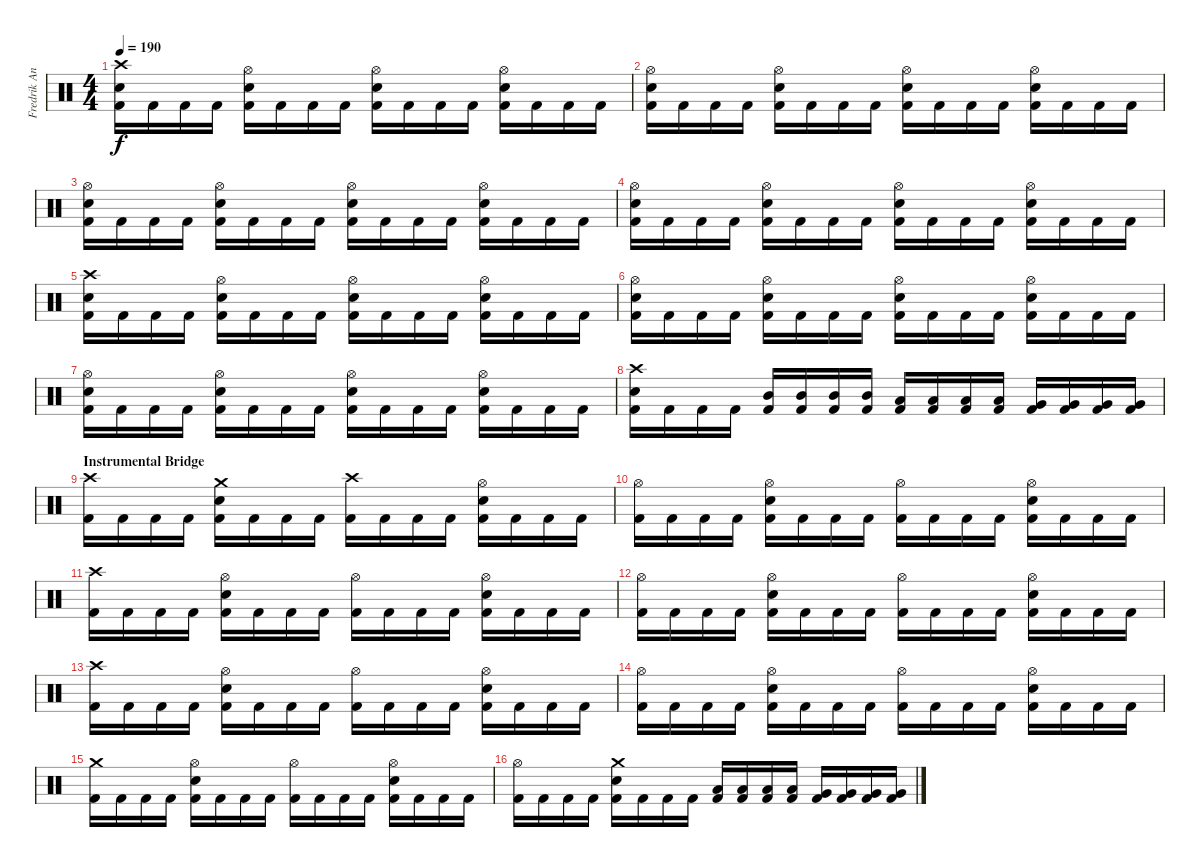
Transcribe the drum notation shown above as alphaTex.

\track ("Fredrik Andersson" "Fredrik An") {instrument percussion}
\staff {score}
\articulation defaults
\ts (4 4)
\section ("" "")
\tempo 190
\clef neutral
\ks c
("Crash high (hit)" "Electric Snare (hit)" "Kick (hit) 2").16{dy f} "Kick (hit) 2".16 "Kick (hit) 2".16 "Kick (hit) 2".16 ("Hi-Hat (open)" "Electric Snare (hit)" "Kick (hit) 2").16 "Kick (hit) 2".16 "Kick (hit) 2".16 "Kick (hit) 2".16 ("Hi-Hat (open)" "Electric Snare (hit)" "Kick (hit) 2").16 "Kick (hit) 2".16 "Kick (hit) 2".16 "Kick (hit) 2".16 ("Hi-Hat (open)" "Electric Snare (hit)" "Kick (hit) 2").16 "Kick (hit) 2".16 "Kick (hit) 2".16 "Kick (hit) 2".16 |
("Hi-Hat (open)" "Electric Snare (hit)" "Kick (hit) 2").16 "Kick (hit) 2".16 "Kick (hit) 2".16 "Kick (hit) 2".16 ("Hi-Hat (open)" "Electric Snare (hit)" "Kick (hit) 2").16 "Kick (hit) 2".16 "Kick (hit) 2".16 "Kick (hit) 2".16 ("Hi-Hat (open)" "Electric Snare (hit)" "Kick (hit) 2").16 "Kick (hit) 2".16 "Kick (hit) 2".16 "Kick (hit) 2".16 ("Hi-Hat (open)" "Electric Snare (hit)" "Kick (hit) 2").16 "Kick (hit) 2".16 "Kick (hit) 2".16 "Kick (hit) 2".16 |
("Hi-Hat (open)" "Electric Snare (hit)" "Kick (hit) 2").16 "Kick (hit) 2".16 "Kick (hit) 2".16 "Kick (hit) 2".16 ("Hi-Hat (open)" "Electric Snare (hit)" "Kick (hit) 2").16 "Kick (hit) 2".16 "Kick (hit) 2".16 "Kick (hit) 2".16 ("Hi-Hat (open)" "Electric Snare (hit)" "Kick (hit) 2").16 "Kick (hit) 2".16 "Kick (hit) 2".16 "Kick (hit) 2".16 ("Hi-Hat (open)" "Electric Snare (hit)" "Kick (hit) 2").16 "Kick (hit) 2".16 "Kick (hit) 2".16 "Kick (hit) 2".16 |
("Hi-Hat (open)" "Electric Snare (hit)" "Kick (hit) 2").16 "Kick (hit) 2".16 "Kick (hit) 2".16 "Kick (hit) 2".16 ("Hi-Hat (open)" "Electric Snare (hit)" "Kick (hit) 2").16 "Kick (hit) 2".16 "Kick (hit) 2".16 "Kick (hit) 2".16 ("Hi-Hat (open)" "Electric Snare (hit)" "Kick (hit) 2").16 "Kick (hit) 2".16 "Kick (hit) 2".16 "Kick (hit) 2".16 ("Hi-Hat (open)" "Electric Snare (hit)" "Kick (hit) 2").16 "Kick (hit) 2".16 "Kick (hit) 2".16 "Kick (hit) 2".16 |
("Crash high (hit)" "Electric Snare (hit)" "Kick (hit) 2").16 "Kick (hit) 2".16 "Kick (hit) 2".16 "Kick (hit) 2".16 ("Hi-Hat (open)" "Electric Snare (hit)" "Kick (hit) 2").16 "Kick (hit) 2".16 "Kick (hit) 2".16 "Kick (hit) 2".16 ("Hi-Hat (open)" "Electric Snare (hit)" "Kick (hit) 2").16 "Kick (hit) 2".16 "Kick (hit) 2".16 "Kick (hit) 2".16 ("Hi-Hat (open)" "Electric Snare (hit)" "Kick (hit) 2").16 "Kick (hit) 2".16 "Kick (hit) 2".16 "Kick (hit) 2".16 |
("Hi-Hat (open)" "Electric Snare (hit)" "Kick (hit) 2").16 "Kick (hit) 2".16 "Kick (hit) 2".16 "Kick (hit) 2".16 ("Hi-Hat (open)" "Electric Snare (hit)" "Kick (hit) 2").16 "Kick (hit) 2".16 "Kick (hit) 2".16 "Kick (hit) 2".16 ("Hi-Hat (open)" "Electric Snare (hit)" "Kick (hit) 2").16 "Kick (hit) 2".16 "Kick (hit) 2".16 "Kick (hit) 2".16 ("Hi-Hat (open)" "Electric Snare (hit)" "Kick (hit) 2").16 "Kick (hit) 2".16 "Kick (hit) 2".16 "Kick (hit) 2".16 |
("Hi-Hat (open)" "Electric Snare (hit)" "Kick (hit) 2").16 "Kick (hit) 2".16 "Kick (hit) 2".16 "Kick (hit) 2".16 ("Hi-Hat (open)" "Electric Snare (hit)" "Kick (hit) 2").16 "Kick (hit) 2".16 "Kick (hit) 2".16 "Kick (hit) 2".16 ("Hi-Hat (open)" "Electric Snare (hit)" "Kick (hit) 2").16 "Kick (hit) 2".16 "Kick (hit) 2".16 "Kick (hit) 2".16 ("Hi-Hat (open)" "Electric Snare (hit)" "Kick (hit) 2").16 "Kick (hit) 2".16 "Kick (hit) 2".16 "Kick (hit) 2".16 |
("Crash high (hit)" "Electric Snare (hit)" "Kick (hit) 2").16 "Kick (hit) 2".16 "Kick (hit) 2".16 "Kick (hit) 2".16 ("Mid Tom (hit)" "Kick (hit) 2").16 ("Mid Tom (hit)" "Kick (hit) 2").16 ("Mid Tom (hit)" "Kick (hit) 2").16 ("Mid Tom (hit)" "Kick (hit) 2").16 ("Low Tom (hit)" "Kick (hit) 2").16 ("Low Tom (hit)" "Kick (hit) 2").16 ("Low Tom (hit)" "Kick (hit) 2").16 ("Low Tom (hit)" "Kick (hit) 2").16 ("Very Low Tom (hit)" "Kick (hit) 2").16 ("Very Low Tom (hit)" "Kick (hit) 2").16 ("Very Low Tom (hit)" "Kick (hit) 2").16 ("Very Low Tom (hit)" "Kick (hit) 2").16 |
\section ("" "Instrumental Bridge")
("Crash high (hit)" "Kick (hit) 2").16 "Kick (hit) 2".16 "Kick (hit) 2".16 "Kick (hit) 2".16 ("Crash medium (hit)" "Electric Snare (hit)" "Kick (hit) 2").16 "Kick (hit) 2".16 "Kick (hit) 2".16 "Kick (hit) 2".16 ("Crash high (hit)" "Kick (hit) 2").16 "Kick (hit) 2".16 "Kick (hit) 2".16 "Kick (hit) 2".16 ("Hi-Hat (open)" "Electric Snare (hit)" "Kick (hit) 2").16 "Kick (hit) 2".16 "Kick (hit) 2".16 "Kick (hit) 2".16 |
("Hi-Hat (open)" "Kick (hit) 2").16 "Kick (hit) 2".16 "Kick (hit) 2".16 "Kick (hit) 2".16 ("Hi-Hat (open)" "Electric Snare (hit)" "Kick (hit) 2").16 "Kick (hit) 2".16 "Kick (hit) 2".16 "Kick (hit) 2".16 ("Hi-Hat (open)" "Kick (hit) 2").16 "Kick (hit) 2".16 "Kick (hit) 2".16 "Kick (hit) 2".16 ("Hi-Hat (open)" "Electric Snare (hit)" "Kick (hit) 2").16 "Kick (hit) 2".16 "Kick (hit) 2".16 "Kick (hit) 2".16 |
("Crash high (hit)" "Kick (hit) 2").16 "Kick (hit) 2".16 "Kick (hit) 2".16 "Kick (hit) 2".16 ("Hi-Hat (open)" "Electric Snare (hit)" "Kick (hit) 2").16 "Kick (hit) 2".16 "Kick (hit) 2".16 "Kick (hit) 2".16 ("Hi-Hat (open)" "Kick (hit) 2").16 "Kick (hit) 2".16 "Kick (hit) 2".16 "Kick (hit) 2".16 ("Hi-Hat (open)" "Electric Snare (hit)" "Kick (hit) 2").16 "Kick (hit) 2".16 "Kick (hit) 2".16 "Kick (hit) 2".16 |
("Hi-Hat (open)" "Kick (hit) 2").16 "Kick (hit) 2".16 "Kick (hit) 2".16 "Kick (hit) 2".16 ("Hi-Hat (open)" "Electric Snare (hit)" "Kick (hit) 2").16 "Kick (hit) 2".16 "Kick (hit) 2".16 "Kick (hit) 2".16 ("Hi-Hat (open)" "Kick (hit) 2").16 "Kick (hit) 2".16 "Kick (hit) 2".16 "Kick (hit) 2".16 ("Hi-Hat (open)" "Electric Snare (hit)" "Kick (hit) 2").16 "Kick (hit) 2".16 "Kick (hit) 2".16 "Kick (hit) 2".16 |
("Crash high (hit)" "Kick (hit) 2").16 "Kick (hit) 2".16 "Kick (hit) 2".16 "Kick (hit) 2".16 ("Hi-Hat (open)" "Electric Snare (hit)" "Kick (hit) 2").16 "Kick (hit) 2".16 "Kick (hit) 2".16 "Kick (hit) 2".16 ("Hi-Hat (open)" "Kick (hit) 2").16 "Kick (hit) 2".16 "Kick (hit) 2".16 "Kick (hit) 2".16 ("Hi-Hat (open)" "Electric Snare (hit)" "Kick (hit) 2").16 "Kick (hit) 2".16 "Kick (hit) 2".16 "Kick (hit) 2".16 |
("Hi-Hat (open)" "Kick (hit) 2").16 "Kick (hit) 2".16 "Kick (hit) 2".16 "Kick (hit) 2".16 ("Hi-Hat (open)" "Electric Snare (hit)" "Kick (hit) 2").16 "Kick (hit) 2".16 "Kick (hit) 2".16 "Kick (hit) 2".16 ("Hi-Hat (open)" "Kick (hit) 2").16 "Kick (hit) 2".16 "Kick (hit) 2".16 "Kick (hit) 2".16 ("Hi-Hat (open)" "Electric Snare (hit)" "Kick (hit) 2").16 "Kick (hit) 2".16 "Kick (hit) 2".16 "Kick (hit) 2".16 |
("Crash medium (hit)" "Kick (hit) 2").16 "Kick (hit) 2".16 "Kick (hit) 2".16 "Kick (hit) 2".16 ("Hi-Hat (open)" "Electric Snare (hit)" "Kick (hit) 2").16 "Kick (hit) 2".16 "Kick (hit) 2".16 "Kick (hit) 2".16 ("Hi-Hat (open)" "Kick (hit) 2").16 "Kick (hit) 2".16 "Kick (hit) 2".16 "Kick (hit) 2".16 ("Hi-Hat (open)" "Electric Snare (hit)" "Kick (hit) 2").16 "Kick (hit) 2".16 "Kick (hit) 2".16 "Kick (hit) 2".16 |
("Hi-Hat (open)" "Kick (hit) 2").16 "Kick (hit) 2".16 "Kick (hit) 2".16 "Kick (hit) 2".16 ("Crash medium (hit)" "Electric Snare (hit)" "Kick (hit) 2").16 "Kick (hit) 2".16 "Kick (hit) 2".16 "Kick (hit) 2".16 ("Low Tom (hit)" "Kick (hit) 2").16 ("Low Tom (hit)" "Kick (hit) 2").16 ("Low Tom (hit)" "Kick (hit) 2").16 ("Low Tom (hit)" "Kick (hit) 2").16 ("Very Low Tom (hit)" "Kick (hit) 2").16 ("Very Low Tom (hit)" "Kick (hit) 2").16 ("Very Low Tom (hit)" "Kick (hit) 2").16 ("Very Low Tom (hit)" "Kick (hit) 2").16
